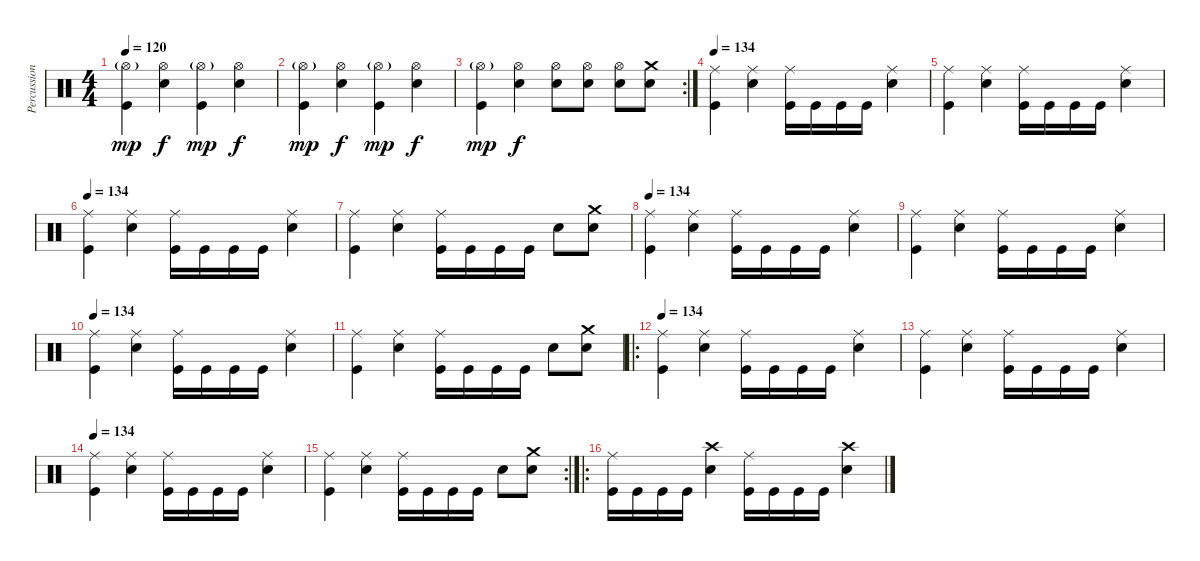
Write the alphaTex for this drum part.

\track ("Percussion" "Percussion") {instrument percussion}
\staff {score}
\articulation defaults
\ts (4 4)
\tempo 120
\clef neutral
\ks c
("Hi-Hat (open)"{g} "Kick (hit)").4{dy mp} ("Hi-Hat (open)" "Snare (hit) 2").4{dy f} ("Hi-Hat (open)"{g} "Kick (hit)").4{dy mp} ("Hi-Hat (open)" "Snare (hit) 2").4{dy f} |
("Hi-Hat (open)"{g} "Kick (hit)").4{dy mp} ("Hi-Hat (open)" "Snare (hit) 2").4{dy f} ("Hi-Hat (open)"{g} "Kick (hit)").4{dy mp} ("Hi-Hat (open)" "Snare (hit) 2").4{dy f} |
\rc 2
("Hi-Hat (open)"{g} "Kick (hit)").4{dy mp} ("Hi-Hat (open)" "Snare (hit) 2").4{dy f} ("Hi-Hat (open)" "Snare (hit) 2").8 ("Hi-Hat (open)" "Snare (hit) 2").8 ("Hi-Hat (open)" "Snare (hit) 2").8 ("Crash medium (hit)" "Snare (hit) 2").8 |
\tempo 134
("Ride (middle)" "Kick (hit)").4 ("Ride (middle)" "Snare (hit) 2").4 ("Ride (middle)" "Kick (hit)").16 "Kick (hit)".16 "Kick (hit)".16 "Kick (hit)".16 ("Ride (middle)" "Snare (hit) 2").4 |
("Ride (middle)" "Kick (hit)").4 ("Ride (middle)" "Snare (hit) 2").4 ("Ride (middle)" "Kick (hit)").16 "Kick (hit)".16 "Kick (hit)".16 "Kick (hit)".16 ("Ride (middle)" "Snare (hit) 2").4 |
\tempo 134
("Ride (middle)" "Kick (hit)").4 ("Ride (middle)" "Snare (hit) 2").4 ("Ride (middle)" "Kick (hit)").16 "Kick (hit)".16 "Kick (hit)".16 "Kick (hit)".16 ("Ride (middle)" "Snare (hit) 2").4 |
("Ride (middle)" "Kick (hit)").4 ("Ride (middle)" "Snare (hit) 2").4 ("Ride (middle)" "Kick (hit)").16 "Kick (hit)".16 "Kick (hit)".16 "Kick (hit)".16 "Snare (hit) 2".8 ("Crash medium (hit)" "Snare (hit) 2").8 |
\tempo 134
("Ride (middle)" "Kick (hit)").4 ("Ride (middle)" "Snare (hit) 2").4 ("Ride (middle)" "Kick (hit)").16 "Kick (hit)".16 "Kick (hit)".16 "Kick (hit)".16 ("Ride (middle)" "Snare (hit) 2").4 |
("Ride (middle)" "Kick (hit)").4 ("Ride (middle)" "Snare (hit) 2").4 ("Ride (middle)" "Kick (hit)").16 "Kick (hit)".16 "Kick (hit)".16 "Kick (hit)".16 ("Ride (middle)" "Snare (hit) 2").4 |
\tempo 134
("Ride (middle)" "Kick (hit)").4 ("Ride (middle)" "Snare (hit) 2").4 ("Ride (middle)" "Kick (hit)").16 "Kick (hit)".16 "Kick (hit)".16 "Kick (hit)".16 ("Ride (middle)" "Snare (hit) 2").4 |
("Ride (middle)" "Kick (hit)").4 ("Ride (middle)" "Snare (hit) 2").4 ("Ride (middle)" "Kick (hit)").16 "Kick (hit)".16 "Kick (hit)".16 "Kick (hit)".16 "Snare (hit) 2".8 ("Crash medium (hit)" "Snare (hit) 2").8 |
\ro
\tempo 134
("Ride (middle)" "Kick (hit)").4 ("Ride (middle)" "Snare (hit) 2").4 ("Ride (middle)" "Kick (hit)").16 "Kick (hit)".16 "Kick (hit)".16 "Kick (hit)".16 ("Ride (middle)" "Snare (hit) 2").4 |
("Ride (middle)" "Kick (hit)").4 ("Ride (middle)" "Snare (hit) 2").4 ("Ride (middle)" "Kick (hit)").16 "Kick (hit)".16 "Kick (hit)".16 "Kick (hit)".16 ("Ride (middle)" "Snare (hit) 2").4 |
\tempo 134
("Ride (middle)" "Kick (hit)").4 ("Ride (middle)" "Snare (hit) 2").4 ("Ride (middle)" "Kick (hit)").16 "Kick (hit)".16 "Kick (hit)".16 "Kick (hit)".16 ("Ride (middle)" "Snare (hit) 2").4 |
\rc 2
("Ride (middle)" "Kick (hit)").4 ("Ride (middle)" "Snare (hit) 2").4 ("Ride (middle)" "Kick (hit)").16 "Kick (hit)".16 "Kick (hit)".16 "Kick (hit)".16 "Snare (hit) 2".8 ("Crash medium (hit)" "Snare (hit) 2").8 |
\ro
("Ride (middle)" "Kick (hit)").16 "Kick (hit)".16 "Kick (hit)".16 "Kick (hit)".16 ("Crash high (hit)" "Snare (hit) 2").4 ("Ride (middle)" "Kick (hit)").16 "Kick (hit)".16 "Kick (hit)".16 "Kick (hit)".16 ("Crash high (hit)" "Snare (hit) 2").4
